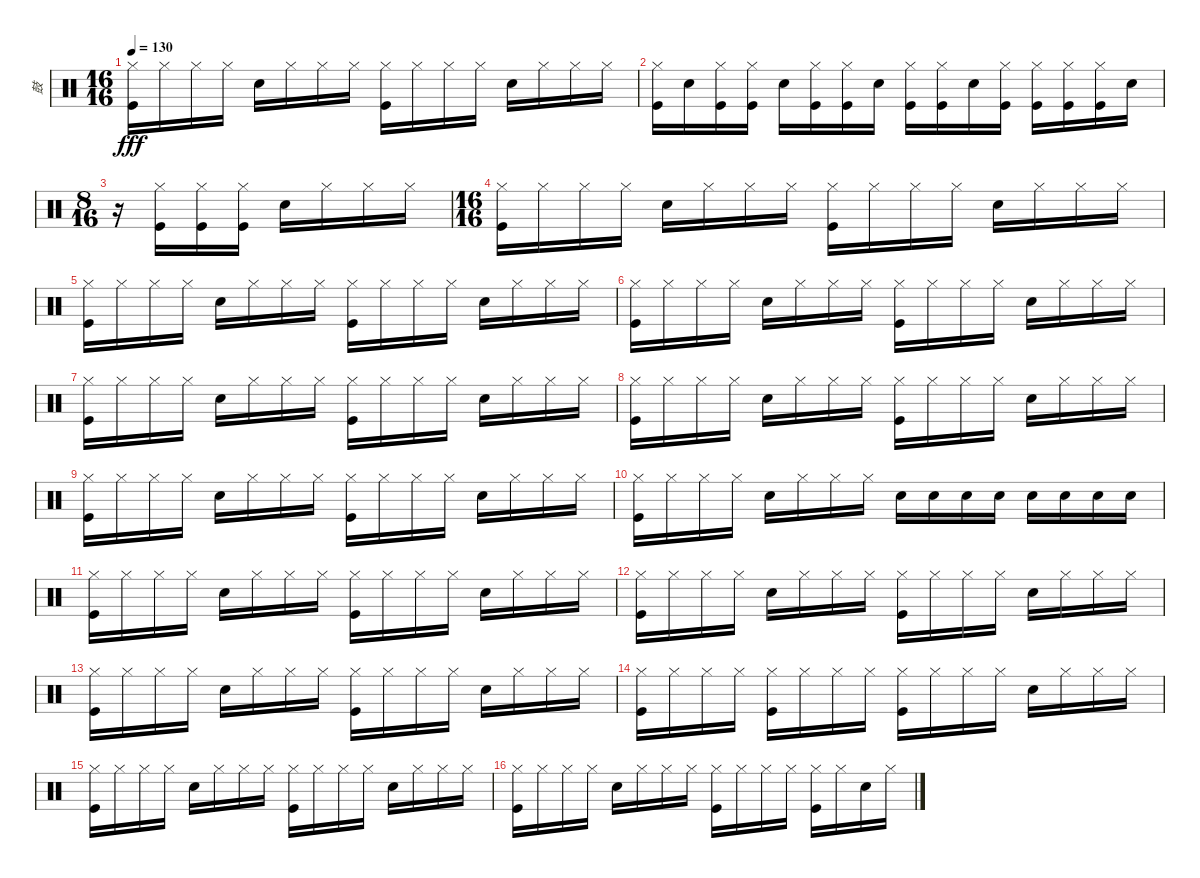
\track ("鼓" "鼓") {instrument percussion}
\staff {score}
\articulation defaults
\ts (16 16)
\tempo 130
\clef neutral
\ks c
("Hi-Hat (closed)" "Kick (hit)").16{dy fff} "Hi-Hat (closed)".16 "Hi-Hat (closed)".16 "Hi-Hat (closed)".16 "Snare (hit) 2".16 "Hi-Hat (closed)".16 "Hi-Hat (closed)".16 "Hi-Hat (closed)".16 ("Hi-Hat (closed)" "Kick (hit)").16 "Hi-Hat (closed)".16 "Hi-Hat (closed)".16 "Hi-Hat (closed)".16 "Snare (hit) 2".16 "Hi-Hat (closed)".16 "Hi-Hat (closed)".16 "Hi-Hat (closed)".16 |
("Kick (hit)" "Hi-Hat (closed)").16 "Snare (hit) 2".16 ("Kick (hit)" "Hi-Hat (closed)").16 ("Kick (hit)" "Hi-Hat (closed)").16 "Snare (hit) 2".16 ("Kick (hit)" "Hi-Hat (closed)").16 ("Kick (hit)" "Hi-Hat (closed)").16 "Snare (hit) 2".16 ("Kick (hit)" "Hi-Hat (closed)").16 ("Kick (hit)" "Hi-Hat (closed)").16 "Snare (hit) 2".16 ("Kick (hit)" "Hi-Hat (closed)").16 ("Kick (hit)" "Hi-Hat (closed)").16 ("Kick (hit)" "Hi-Hat (closed)").16 ("Kick (hit)" "Hi-Hat (closed)").16 "Snare (hit) 2".16 |
\ts (8 16)
r.16 ("Kick (hit)" "Hi-Hat (closed)").16 ("Kick (hit)" "Hi-Hat (closed)").16 ("Kick (hit)" "Hi-Hat (closed)").16 "Snare (hit) 2".16 "Hi-Hat (closed)".16 "Hi-Hat (closed)".16 "Hi-Hat (closed)".16 |
\ts (16 16)
("Hi-Hat (closed)" "Kick (hit)").16 "Hi-Hat (closed)".16 "Hi-Hat (closed)".16 "Hi-Hat (closed)".16 "Snare (hit) 2".16 "Hi-Hat (closed)".16 "Hi-Hat (closed)".16 "Hi-Hat (closed)".16 ("Hi-Hat (closed)" "Kick (hit)").16 "Hi-Hat (closed)".16 "Hi-Hat (closed)".16 "Hi-Hat (closed)".16 "Snare (hit) 2".16 "Hi-Hat (closed)".16 "Hi-Hat (closed)".16 "Hi-Hat (closed)".16 |
("Hi-Hat (closed)" "Kick (hit)").16 "Hi-Hat (closed)".16 "Hi-Hat (closed)".16 "Hi-Hat (closed)".16 "Snare (hit) 2".16 "Hi-Hat (closed)".16 "Hi-Hat (closed)".16 "Hi-Hat (closed)".16 ("Hi-Hat (closed)" "Kick (hit)").16 "Hi-Hat (closed)".16 "Hi-Hat (closed)".16 "Hi-Hat (closed)".16 "Snare (hit) 2".16 "Hi-Hat (closed)".16 "Hi-Hat (closed)".16 "Hi-Hat (closed)".16 |
("Hi-Hat (closed)" "Kick (hit)").16 "Hi-Hat (closed)".16 "Hi-Hat (closed)".16 "Hi-Hat (closed)".16 "Snare (hit) 2".16 "Hi-Hat (closed)".16 "Hi-Hat (closed)".16 "Hi-Hat (closed)".16 ("Hi-Hat (closed)" "Kick (hit)").16 "Hi-Hat (closed)".16 "Hi-Hat (closed)".16 "Hi-Hat (closed)".16 "Snare (hit) 2".16 "Hi-Hat (closed)".16 "Hi-Hat (closed)".16 "Hi-Hat (closed)".16 |
("Hi-Hat (closed)" "Kick (hit)").16 "Hi-Hat (closed)".16 "Hi-Hat (closed)".16 "Hi-Hat (closed)".16 "Snare (hit) 2".16 "Hi-Hat (closed)".16 "Hi-Hat (closed)".16 "Hi-Hat (closed)".16 ("Hi-Hat (closed)" "Kick (hit)").16 "Hi-Hat (closed)".16 "Hi-Hat (closed)".16 "Hi-Hat (closed)".16 "Snare (hit) 2".16 "Hi-Hat (closed)".16 "Hi-Hat (closed)".16 "Hi-Hat (closed)".16 |
("Hi-Hat (closed)" "Kick (hit)").16 "Hi-Hat (closed)".16 "Hi-Hat (closed)".16 "Hi-Hat (closed)".16 "Snare (hit) 2".16 "Hi-Hat (closed)".16 "Hi-Hat (closed)".16 "Hi-Hat (closed)".16 ("Hi-Hat (closed)" "Kick (hit)").16 "Hi-Hat (closed)".16 "Hi-Hat (closed)".16 "Hi-Hat (closed)".16 "Snare (hit) 2".16 "Hi-Hat (closed)".16 "Hi-Hat (closed)".16 "Hi-Hat (closed)".16 |
("Hi-Hat (closed)" "Kick (hit)").16 "Hi-Hat (closed)".16 "Hi-Hat (closed)".16 "Hi-Hat (closed)".16 "Snare (hit) 2".16 "Hi-Hat (closed)".16 "Hi-Hat (closed)".16 "Hi-Hat (closed)".16 ("Hi-Hat (closed)" "Kick (hit)").16 "Hi-Hat (closed)".16 "Hi-Hat (closed)".16 "Hi-Hat (closed)".16 "Snare (hit) 2".16 "Hi-Hat (closed)".16 "Hi-Hat (closed)".16 "Hi-Hat (closed)".16 |
("Kick (hit)" "Hi-Hat (closed)").16 "Hi-Hat (closed)".16 "Hi-Hat (closed)".16 "Hi-Hat (closed)".16 "Snare (hit) 2".16 "Hi-Hat (closed)".16 "Hi-Hat (closed)".16 "Hi-Hat (closed)".16 "Snare (hit) 2".16 "Snare (hit) 2".16 "Snare (hit) 2".16 "Snare (hit) 2".16 "Snare (hit) 2".16 "Snare (hit) 2".16 "Snare (hit) 2".16 "Snare (hit) 2".16 |
("Hi-Hat (closed)" "Kick (hit)").16 "Hi-Hat (closed)".16 "Hi-Hat (closed)".16 "Hi-Hat (closed)".16 "Snare (hit) 2".16 "Hi-Hat (closed)".16 "Hi-Hat (closed)".16 "Hi-Hat (closed)".16 ("Hi-Hat (closed)" "Kick (hit)").16 "Hi-Hat (closed)".16 "Hi-Hat (closed)".16 "Hi-Hat (closed)".16 "Snare (hit) 2".16 "Hi-Hat (closed)".16 "Hi-Hat (closed)".16 "Hi-Hat (closed)".16 |
("Hi-Hat (closed)" "Kick (hit)").16 "Hi-Hat (closed)".16 "Hi-Hat (closed)".16 "Hi-Hat (closed)".16 "Snare (hit) 2".16 "Hi-Hat (closed)".16 "Hi-Hat (closed)".16 "Hi-Hat (closed)".16 ("Hi-Hat (closed)" "Kick (hit)").16 "Hi-Hat (closed)".16 "Hi-Hat (closed)".16 "Hi-Hat (closed)".16 "Snare (hit) 2".16 "Hi-Hat (closed)".16 "Hi-Hat (closed)".16 "Hi-Hat (closed)".16 |
("Hi-Hat (closed)" "Kick (hit)").16 "Hi-Hat (closed)".16 "Hi-Hat (closed)".16 "Hi-Hat (closed)".16 "Snare (hit) 2".16 "Hi-Hat (closed)".16 "Hi-Hat (closed)".16 "Hi-Hat (closed)".16 ("Hi-Hat (closed)" "Kick (hit)").16 "Hi-Hat (closed)".16 "Hi-Hat (closed)".16 "Hi-Hat (closed)".16 "Snare (hit) 2".16 "Hi-Hat (closed)".16 "Hi-Hat (closed)".16 "Hi-Hat (closed)".16 |
("Hi-Hat (closed)" "Kick (hit)").16 "Hi-Hat (closed)".16 "Hi-Hat (closed)".16 "Hi-Hat (closed)".16 ("Hi-Hat (closed)" "Kick (hit)").16 "Hi-Hat (closed)".16 "Hi-Hat (closed)".16 "Hi-Hat (closed)".16 ("Hi-Hat (closed)" "Kick (hit)").16 "Hi-Hat (closed)".16 "Hi-Hat (closed)".16 "Hi-Hat (closed)".16 "Snare (hit) 2".16 "Hi-Hat (closed)".16 "Hi-Hat (closed)".16 "Hi-Hat (closed)".16 |
("Hi-Hat (closed)" "Kick (hit)").16 "Hi-Hat (closed)".16 "Hi-Hat (closed)".16 "Hi-Hat (closed)".16 "Snare (hit) 2".16 "Hi-Hat (closed)".16 "Hi-Hat (closed)".16 "Hi-Hat (closed)".16 ("Hi-Hat (closed)" "Kick (hit)").16 "Hi-Hat (closed)".16 "Hi-Hat (closed)".16 "Hi-Hat (closed)".16 "Snare (hit) 2".16 "Hi-Hat (closed)".16 "Hi-Hat (closed)".16 "Hi-Hat (closed)".16 |
("Hi-Hat (closed)" "Kick (hit)").16 "Hi-Hat (closed)".16 "Hi-Hat (closed)".16 "Hi-Hat (closed)".16 "Snare (hit) 2".16 "Hi-Hat (closed)".16 "Hi-Hat (closed)".16 "Hi-Hat (closed)".16 ("Hi-Hat (closed)" "Kick (hit)").16 "Hi-Hat (closed)".16 "Hi-Hat (closed)".16 "Hi-Hat (closed)".16 ("Kick (hit)" "Hi-Hat (closed)").16 "Hi-Hat (closed)".16 "Snare (hit) 2".16 "Hi-Hat (closed)".16
